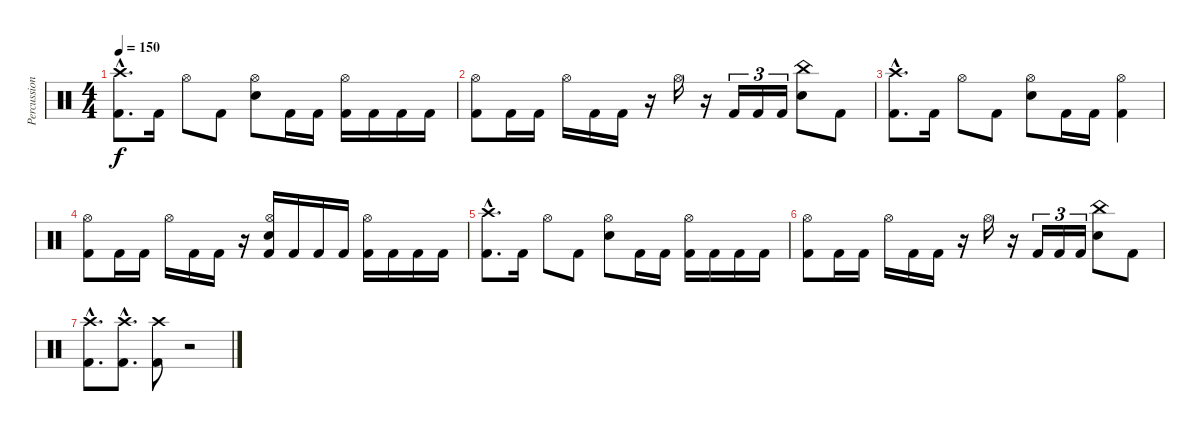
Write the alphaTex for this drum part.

\track ("Percussion" "Percussion") {instrument percussion}
\staff {score}
\articulation defaults
\ts (4 4)
\tempo 150
\clef neutral
\ks c
("Crash high (hit)"{hac} "Kick (hit) 2"{hac}).8{d dy f} "Kick (hit) 2".16 "Hi-Hat (open)".8 "Kick (hit) 2".8 ("Hi-Hat (open)" "Electric Snare (hit)").8 "Kick (hit) 2".16 "Kick (hit) 2".16 ("Hi-Hat (open)" "Kick (hit) 2").16 "Kick (hit) 2".16 "Kick (hit) 2".16 "Kick (hit) 2".16 |
("Hi-Hat (open)" "Kick (hit) 2").8 "Kick (hit) 2".16 "Kick (hit) 2".16 "Hi-Hat (open)".16 "Kick (hit) 2".16 "Kick (hit) 2".16 r.16 "Hi-Hat (open)".16 r.16 "Kick (hit) 2".16{tu (3 2)} "Kick (hit) 2".16{tu (3 2)} "Kick (hit) 2".16{tu (3 2)} ("China (hit)" "Electric Snare (hit)").8 "Kick (hit) 2".8 |
("Crash high (hit)"{hac} "Kick (hit) 2"{hac}).8{d} "Kick (hit) 2".16 "Hi-Hat (open)".8 "Kick (hit) 2".8 ("Hi-Hat (open)" "Electric Snare (hit)").8 "Kick (hit) 2".16 "Kick (hit) 2".16 ("Hi-Hat (open)" "Kick (hit) 2").4 |
("Hi-Hat (open)" "Kick (hit) 2").8 "Kick (hit) 2".16 "Kick (hit) 2".16 "Hi-Hat (open)".16 "Kick (hit) 2".16 "Kick (hit) 2".16 r.16 ("Hi-Hat (open)" "Electric Snare (hit)" "Kick (hit) 2").16 "Kick (hit) 2".16 "Kick (hit) 2".16 "Kick (hit) 2".16 ("Hi-Hat (open)" "Kick (hit) 2").16 "Kick (hit) 2".16 "Kick (hit) 2".16 "Kick (hit) 2".16 |
("Crash high (hit)"{hac} "Kick (hit) 2"{hac}).8{d} "Kick (hit) 2".16 "Hi-Hat (open)".8 "Kick (hit) 2".8 ("Hi-Hat (open)" "Electric Snare (hit)").8 "Kick (hit) 2".16 "Kick (hit) 2".16 ("Hi-Hat (open)" "Kick (hit) 2").16 "Kick (hit) 2".16 "Kick (hit) 2".16 "Kick (hit) 2".16 |
("Hi-Hat (open)" "Kick (hit) 2").8 "Kick (hit) 2".16 "Kick (hit) 2".16 "Hi-Hat (open)".16 "Kick (hit) 2".16 "Kick (hit) 2".16 r.16 "Hi-Hat (open)".16 r.16 "Kick (hit) 2".16{tu (3 2)} "Kick (hit) 2".16{tu (3 2)} "Kick (hit) 2".16{tu (3 2)} ("China (hit)" "Electric Snare (hit)").8 "Kick (hit) 2".8 |
("Crash high (hit)"{hac} "Kick (hit) 2"{hac}).8{d} ("Crash high (hit)"{hac} "Kick (hit) 2"{hac}).8{d} ("Crash high (hit)" "Kick (hit) 2").8 r.2
